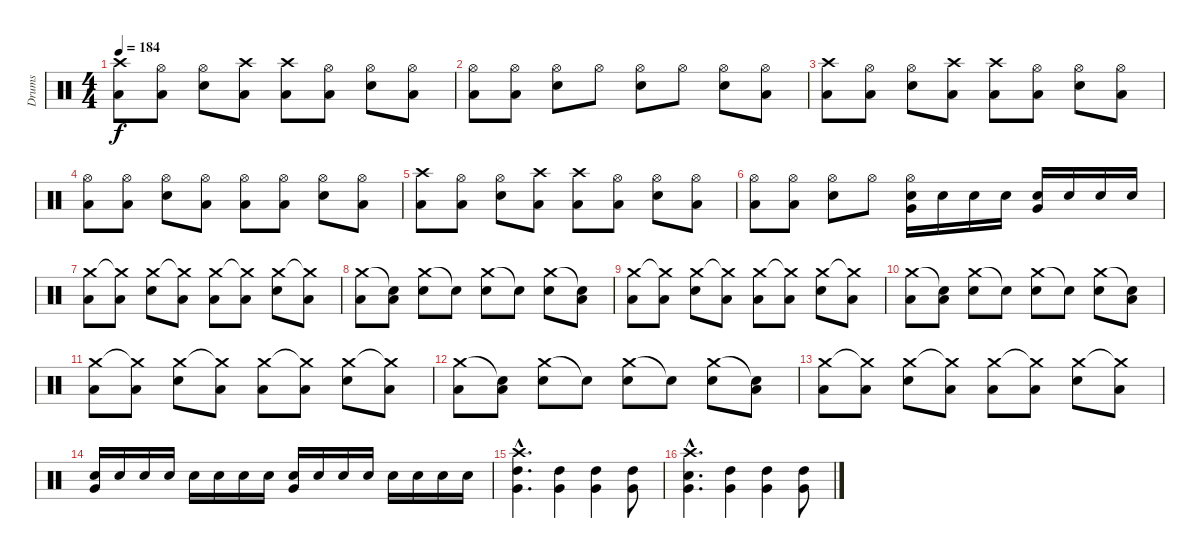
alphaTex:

\track ("Drums" "Drums") {instrument percussion}
\staff {score}
\articulation defaults
\ts (4 4)
\tempo 184
\clef neutral
\ks c
("Crash high (hit)" "Low Tom (hit)").8{dy f} ("Hi-Hat (open)" "Low Tom (hit)").8 ("Hi-Hat (open)" "Electric Snare (hit)").8 ("Crash high (hit)" "Low Tom (hit)").8 ("Crash high (hit)" "Low Tom (hit)").8 ("Hi-Hat (open)" "Low Tom (hit)").8 ("Hi-Hat (open)" "Electric Snare (hit)").8 ("Hi-Hat (open)" "Low Tom (hit)").8 |
("Hi-Hat (open)" "Low Tom (hit)").8 ("Hi-Hat (open)" "Low Tom (hit)").8 ("Hi-Hat (open)" "Electric Snare (hit)").8 "Hi-Hat (open)".8 ("Hi-Hat (open)" "Electric Snare (hit)").8 "Hi-Hat (open)".8 ("Hi-Hat (open)" "Electric Snare (hit)").8 ("Hi-Hat (open)" "Low Tom (hit)").8 |
("Crash high (hit)" "Low Tom (hit)").8 ("Hi-Hat (open)" "Low Tom (hit)").8 ("Hi-Hat (open)" "Electric Snare (hit)").8 ("Crash high (hit)" "Low Tom (hit)").8 ("Crash high (hit)" "Low Tom (hit)").8 ("Hi-Hat (open)" "Low Tom (hit)").8 ("Hi-Hat (open)" "Electric Snare (hit)").8 ("Hi-Hat (open)" "Low Tom (hit)").8 |
("Hi-Hat (open)" "Low Tom (hit)").8 ("Hi-Hat (open)" "Low Tom (hit)").8 ("Hi-Hat (open)" "Electric Snare (hit)").8 ("Hi-Hat (open)" "Low Tom (hit)").8 ("Hi-Hat (open)" "Low Tom (hit)").8 ("Hi-Hat (open)" "Low Tom (hit)").8 ("Hi-Hat (open)" "Electric Snare (hit)").8 ("Hi-Hat (open)" "Low Tom (hit)").8 |
("Crash high (hit)" "Low Tom (hit)").8 ("Hi-Hat (open)" "Low Tom (hit)").8 ("Hi-Hat (open)" "Electric Snare (hit)").8 ("Crash high (hit)" "Low Tom (hit)").8 ("Crash high (hit)" "Low Tom (hit)").8 ("Hi-Hat (open)" "Low Tom (hit)").8 ("Hi-Hat (open)" "Electric Snare (hit)").8 ("Hi-Hat (open)" "Low Tom (hit)").8 |
("Hi-Hat (open)" "Low Tom (hit)").8 ("Hi-Hat (open)" "Low Tom (hit)").8 ("Hi-Hat (open)" "Electric Snare (hit)").8 "Hi-Hat (open)".8 ("Hi-Hat (open)" "Electric Snare (hit)" "Very Low Tom (hit)").16 "Electric Snare (hit)".16 "Electric Snare (hit)".16 "Electric Snare (hit)".16 ("Electric Snare (hit)" "Very Low Tom (hit)").16 "Electric Snare (hit)".16 "Electric Snare (hit)".16 "Electric Snare (hit)".16 |
("Crash medium (hit)" "Low Tom (hit)").8 ("Crash medium (hit)"{t} "Low Tom (hit)").8 ("Crash medium (hit)" "Electric Snare (hit)").8 ("Crash medium (hit)"{t} "Low Tom (hit)").8 ("Crash medium (hit)" "Low Tom (hit)").8 ("Crash medium (hit)"{t} "Low Tom (hit)").8 ("Crash medium (hit)" "Electric Snare (hit)").8 ("Crash medium (hit)"{t} "Low Tom (hit)").8 |
("Crash medium (hit)" "Low Tom (hit)").8 ("Snare (hit)"{t} "Low Tom (hit)").8 ("Crash medium (hit)" "Electric Snare (hit)").8 "Snare (hit)"{t}.8 ("Crash medium (hit)" "Electric Snare (hit)").8 "Snare (hit)"{t}.8 ("Crash medium (hit)" "Electric Snare (hit)").8 ("Snare (hit)"{t} "Low Tom (hit)").8 |
("Crash medium (hit)" "Low Tom (hit)").8 ("Crash medium (hit)"{t} "Low Tom (hit)").8 ("Crash medium (hit)" "Electric Snare (hit)").8 ("Crash medium (hit)"{t} "Low Tom (hit)").8 ("Crash medium (hit)" "Low Tom (hit)").8 ("Crash medium (hit)"{t} "Low Tom (hit)").8 ("Crash medium (hit)" "Electric Snare (hit)").8 ("Crash medium (hit)"{t} "Low Tom (hit)").8 |
("Crash medium (hit)" "Low Tom (hit)").8 ("Snare (hit)"{t} "Low Tom (hit)").8 ("Crash medium (hit)" "Electric Snare (hit)").8 "Snare (hit)"{t}.8 ("Crash medium (hit)" "Electric Snare (hit)").8 "Snare (hit)"{t}.8 ("Crash medium (hit)" "Electric Snare (hit)").8 ("Snare (hit)"{t} "Low Tom (hit)").8 |
("Crash medium (hit)" "Low Tom (hit)").8 ("Crash medium (hit)"{t} "Low Tom (hit)").8 ("Crash medium (hit)" "Electric Snare (hit)").8 ("Crash medium (hit)"{t} "Low Tom (hit)").8 ("Crash medium (hit)" "Low Tom (hit)").8 ("Crash medium (hit)"{t} "Low Tom (hit)").8 ("Crash medium (hit)" "Electric Snare (hit)").8 ("Crash medium (hit)"{t} "Low Tom (hit)").8 |
("Crash medium (hit)" "Low Tom (hit)").8 ("Snare (hit)"{t} "Low Tom (hit)").8 ("Crash medium (hit)" "Electric Snare (hit)").8 "Snare (hit)"{t}.8 ("Crash medium (hit)" "Electric Snare (hit)").8 "Snare (hit)"{t}.8 ("Crash medium (hit)" "Electric Snare (hit)").8 ("Snare (hit)"{t} "Low Tom (hit)").8 |
("Crash medium (hit)" "Low Tom (hit)").8 ("Crash medium (hit)"{t} "Low Tom (hit)").8 ("Crash medium (hit)" "Electric Snare (hit)").8 ("Crash medium (hit)"{t} "Low Tom (hit)").8 ("Crash medium (hit)" "Low Tom (hit)").8 ("Crash medium (hit)"{t} "Low Tom (hit)").8 ("Crash medium (hit)" "Electric Snare (hit)").8 ("Crash medium (hit)"{t} "Low Tom (hit)").8 |
("Electric Snare (hit)" "Very Low Tom (hit)").16 "Electric Snare (hit)".16 "Electric Snare (hit)".16 "Electric Snare (hit)".16 "Electric Snare (hit)".16 "Electric Snare (hit)".16 "Electric Snare (hit)".16 "Electric Snare (hit)".16 ("Electric Snare (hit)" "Very Low Tom (hit)").16 "Electric Snare (hit)".16 "Electric Snare (hit)".16 "Electric Snare (hit)".16 "Electric Snare (hit)".16 "Electric Snare (hit)".16 "Electric Snare (hit)".16 "Electric Snare (hit)".16 |
("Crash high (hit)"{hac} "High Tom (hit)"{hac} "Very Low Tom (hit)"{hac}).4{d} ("High Tom (hit)" "Very Low Tom (hit)").4 ("High Tom (hit)" "Very Low Tom (hit)").4 ("High Tom (hit)" "Very Low Tom (hit)").8 |
("Crash high (hit)"{hac} "Electric Snare (hit)"{hac} "Very Low Tom (hit)"{hac}).4{d} ("High Tom (hit)" "Very Low Tom (hit)").4 ("High Tom (hit)" "Very Low Tom (hit)").4 ("High Tom (hit)" "Very Low Tom (hit)").8
